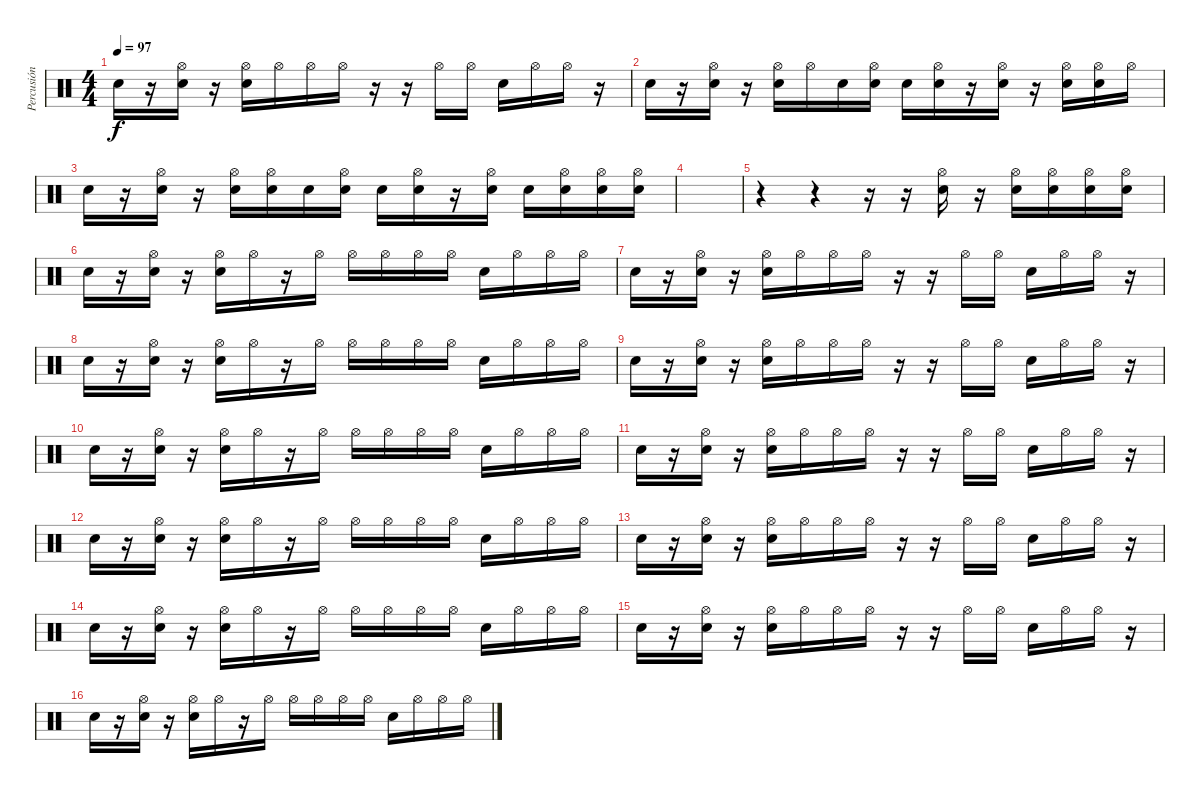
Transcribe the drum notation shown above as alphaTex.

\track ("Percusión" "Percusión") {instrument percussion}
\staff {score}
\articulation defaults
\ts (4 4)
\tempo 97
\clef neutral
\ks c "Snare (hit) 2".16{dy f}
r.16 ("Hi-Hat (open)" "Snare (hit) 2").16 r.16 ("Hi-Hat (open)" "Electric Snare (hit)").16 "Hi-Hat (open)".16 "Hi-Hat (open)".16 "Hi-Hat (open)".16 r.16 r.16 "Hi-Hat (open)".16 "Hi-Hat (open)".16 "Electric Snare (hit)".16 "Hi-Hat (open)".16 "Hi-Hat (open)".16 r.16 |
"Snare (hit) 2".16 r.16 ("Hi-Hat (open)" "Snare (hit) 2").16 r.16 ("Hi-Hat (open)" "Electric Snare (hit)").16 "Hi-Hat (open)".16 "Electric Snare (hit)".16 ("Hi-Hat (open)" "Snare (hit) 2").16 "Electric Snare (hit)".16 ("Hi-Hat (open)" "Snare (hit) 2").16 r.16 ("Hi-Hat (open)" "Electric Snare (hit)").16 r.16 ("Hi-Hat (open)" "Snare (hit) 2").16 ("Hi-Hat (open)" "Electric Snare (hit)").16 "Hi-Hat (open)".16 |
"Snare (hit) 2".16 r.16 ("Hi-Hat (open)" "Snare (hit) 2").16 r.16 ("Hi-Hat (open)" "Electric Snare (hit)").16 ("Hi-Hat (open)" "Snare (hit) 2").16 "Snare (hit) 2".16 ("Hi-Hat (open)" "Electric Snare (hit)").16 "Snare (hit) 2".16 ("Hi-Hat (open)" "Electric Snare (hit)").16 r.16 ("Hi-Hat (open)" "Electric Snare (hit)").16 "Snare (hit) 2".16 ("Hi-Hat (open)" "Electric Snare (hit)").16 ("Hi-Hat (open)" "Snare (hit) 2").16 ("Hi-Hat (open)" "Electric Snare (hit)").16 |
|
r.4 r.4 r.16 r.16 ("Hi-Hat (open)" "Snare (hit) 2").16 r.16 ("Hi-Hat (open)" "Electric Snare (hit)").16 ("Hi-Hat (open)" "Electric Snare (hit)").16 ("Hi-Hat (open)" "Electric Snare (hit)").16 ("Hi-Hat (open)" "Electric Snare (hit)").16 |
"Snare (hit) 2".16 r.16 ("Hi-Hat (open)" "Snare (hit) 2").16 r.16 ("Hi-Hat (open)" "Electric Snare (hit)").16 "Hi-Hat (open)".16 r.16 "Hi-Hat (open)".16 "Hi-Hat (open)".16 "Hi-Hat (open)".16 "Hi-Hat (open)".16 "Hi-Hat (open)".16 "Electric Snare (hit)".16 "Hi-Hat (open)".16 "Hi-Hat (open)".16 "Hi-Hat (open)".16 |
"Snare (hit) 2".16 r.16 ("Hi-Hat (open)" "Snare (hit) 2").16 r.16 ("Hi-Hat (open)" "Electric Snare (hit)").16 "Hi-Hat (open)".16 "Hi-Hat (open)".16 "Hi-Hat (open)".16 r.16 r.16 "Hi-Hat (open)".16 "Hi-Hat (open)".16 "Electric Snare (hit)".16 "Hi-Hat (open)".16 "Hi-Hat (open)".16 r.16 |
"Snare (hit) 2".16 r.16 ("Hi-Hat (open)" "Snare (hit) 2").16 r.16 ("Hi-Hat (open)" "Electric Snare (hit)").16 "Hi-Hat (open)".16 r.16 "Hi-Hat (open)".16 "Hi-Hat (open)".16 "Hi-Hat (open)".16 "Hi-Hat (open)".16 "Hi-Hat (open)".16 "Electric Snare (hit)".16 "Hi-Hat (open)".16 "Hi-Hat (open)".16 "Hi-Hat (open)".16 |
"Snare (hit) 2".16 r.16 ("Hi-Hat (open)" "Snare (hit) 2").16 r.16 ("Hi-Hat (open)" "Electric Snare (hit)").16 "Hi-Hat (open)".16 "Hi-Hat (open)".16 "Hi-Hat (open)".16 r.16 r.16 "Hi-Hat (open)".16 "Hi-Hat (open)".16 "Electric Snare (hit)".16 "Hi-Hat (open)".16 "Hi-Hat (open)".16 r.16 |
"Snare (hit) 2".16 r.16 ("Hi-Hat (open)" "Snare (hit) 2").16 r.16 ("Hi-Hat (open)" "Electric Snare (hit)").16 "Hi-Hat (open)".16 r.16 "Hi-Hat (open)".16 "Hi-Hat (open)".16 "Hi-Hat (open)".16 "Hi-Hat (open)".16 "Hi-Hat (open)".16 "Electric Snare (hit)".16 "Hi-Hat (open)".16 "Hi-Hat (open)".16 "Hi-Hat (open)".16 |
"Snare (hit) 2".16 r.16 ("Hi-Hat (open)" "Snare (hit) 2").16 r.16 ("Hi-Hat (open)" "Electric Snare (hit)").16 "Hi-Hat (open)".16 "Hi-Hat (open)".16 "Hi-Hat (open)".16 r.16 r.16 "Hi-Hat (open)".16 "Hi-Hat (open)".16 "Electric Snare (hit)".16 "Hi-Hat (open)".16 "Hi-Hat (open)".16 r.16 |
"Snare (hit) 2".16 r.16 ("Hi-Hat (open)" "Snare (hit) 2").16 r.16 ("Hi-Hat (open)" "Electric Snare (hit)").16 "Hi-Hat (open)".16 r.16 "Hi-Hat (open)".16 "Hi-Hat (open)".16 "Hi-Hat (open)".16 "Hi-Hat (open)".16 "Hi-Hat (open)".16 "Electric Snare (hit)".16 "Hi-Hat (open)".16 "Hi-Hat (open)".16 "Hi-Hat (open)".16 |
"Snare (hit) 2".16 r.16 ("Hi-Hat (open)" "Snare (hit) 2").16 r.16 ("Hi-Hat (open)" "Electric Snare (hit)").16 "Hi-Hat (open)".16 "Hi-Hat (open)".16 "Hi-Hat (open)".16 r.16 r.16 "Hi-Hat (open)".16 "Hi-Hat (open)".16 "Electric Snare (hit)".16 "Hi-Hat (open)".16 "Hi-Hat (open)".16 r.16 |
"Snare (hit) 2".16 r.16 ("Hi-Hat (open)" "Snare (hit) 2").16 r.16 ("Hi-Hat (open)" "Electric Snare (hit)").16 "Hi-Hat (open)".16 r.16 "Hi-Hat (open)".16 "Hi-Hat (open)".16 "Hi-Hat (open)".16 "Hi-Hat (open)".16 "Hi-Hat (open)".16 "Electric Snare (hit)".16 "Hi-Hat (open)".16 "Hi-Hat (open)".16 "Hi-Hat (open)".16 |
"Snare (hit) 2".16 r.16 ("Hi-Hat (open)" "Snare (hit) 2").16 r.16 ("Hi-Hat (open)" "Electric Snare (hit)").16 "Hi-Hat (open)".16 "Hi-Hat (open)".16 "Hi-Hat (open)".16 r.16 r.16 "Hi-Hat (open)".16 "Hi-Hat (open)".16 "Electric Snare (hit)".16 "Hi-Hat (open)".16 "Hi-Hat (open)".16 r.16 |
"Snare (hit) 2".16 r.16 ("Hi-Hat (open)" "Snare (hit) 2").16 r.16 ("Hi-Hat (open)" "Electric Snare (hit)").16 "Hi-Hat (open)".16 r.16 "Hi-Hat (open)".16 "Hi-Hat (open)".16 "Hi-Hat (open)".16 "Hi-Hat (open)".16 "Hi-Hat (open)".16 "Electric Snare (hit)".16 "Hi-Hat (open)".16 "Hi-Hat (open)".16 "Hi-Hat (open)".16
